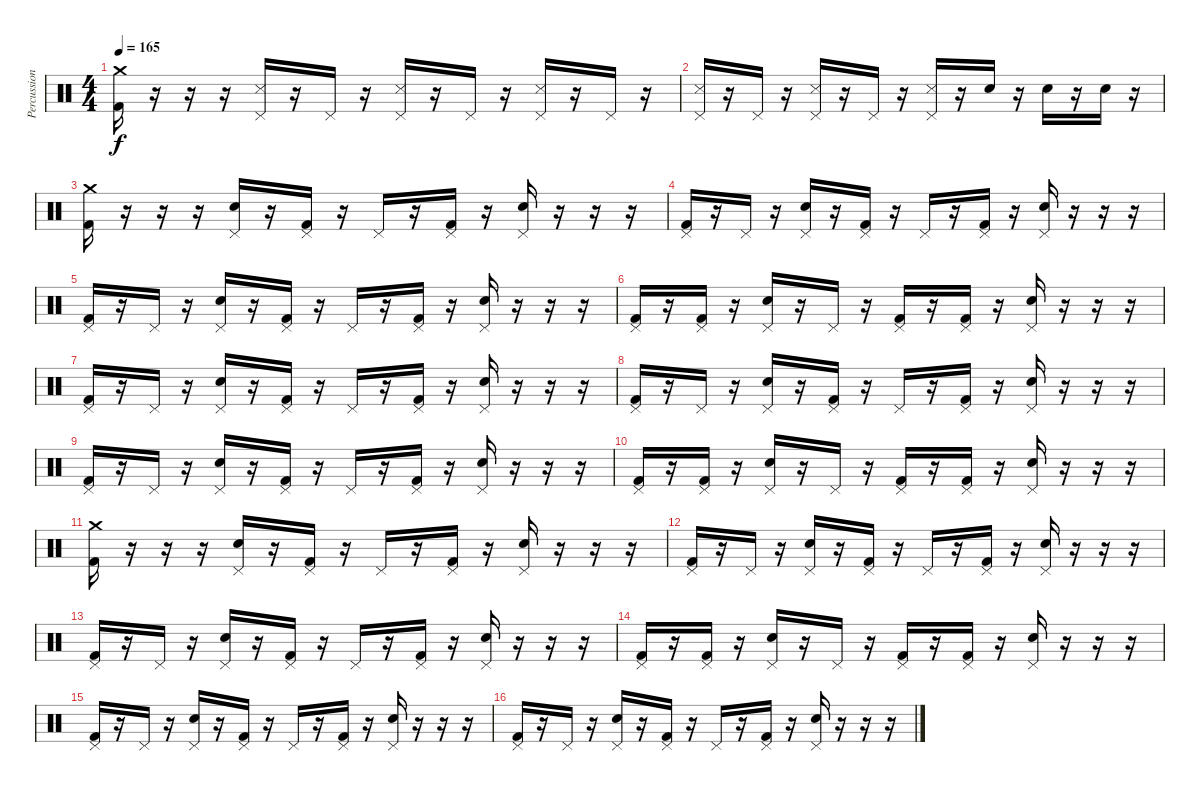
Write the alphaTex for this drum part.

\track ("Percussion" "Percussion") {instrument percussion}
\staff {score}
\articulation defaults
\ts (4 4)
\tempo 165
\clef neutral
\ks c
("Crash medium (hit)" "Kick (hit) 2").16{dy f} r.16 r.16 r.16 ("Metronome (hit)" "Pedal Hi-Hat (hit)").16 r.16 "Pedal Hi-Hat (hit)".16 r.16 ("Metronome (hit)" "Pedal Hi-Hat (hit)").16 r.16 "Pedal Hi-Hat (hit)".16 r.16 ("Metronome (hit)" "Pedal Hi-Hat (hit)").16 r.16 "Pedal Hi-Hat (hit)".16 r.16 |
("Metronome (hit)" "Pedal Hi-Hat (hit)").16 r.16 "Pedal Hi-Hat (hit)".16 r.16 ("Metronome (hit)" "Pedal Hi-Hat (hit)").16 r.16 "Pedal Hi-Hat (hit)".16 r.16 ("Metronome (hit)" "Pedal Hi-Hat (hit)").16 r.16 "Electric Snare (hit)".16 r.16 "Electric Snare (hit)".16 r.16 "Electric Snare (hit)".16 r.16 |
("Crash medium (hit)" "Kick (hit) 2").16 r.16 r.16 r.16 ("Pedal Hi-Hat (hit)" "Electric Snare (hit)").16 r.16 ("Pedal Hi-Hat (hit)" "Kick (hit) 2").16 r.16 "Pedal Hi-Hat (hit)".16 r.16 ("Pedal Hi-Hat (hit)" "Kick (hit) 2").16 r.16 ("Pedal Hi-Hat (hit)" "Electric Snare (hit)").16 r.16 r.16 r.16 |
("Pedal Hi-Hat (hit)" "Kick (hit) 2").16 r.16 "Pedal Hi-Hat (hit)".16 r.16 ("Pedal Hi-Hat (hit)" "Electric Snare (hit)").16 r.16 ("Pedal Hi-Hat (hit)" "Kick (hit) 2").16 r.16 "Pedal Hi-Hat (hit)".16 r.16 ("Pedal Hi-Hat (hit)" "Kick (hit) 2").16 r.16 ("Pedal Hi-Hat (hit)" "Electric Snare (hit)").16 r.16 r.16 r.16 |
("Pedal Hi-Hat (hit)" "Kick (hit) 2").16 r.16 "Pedal Hi-Hat (hit)".16 r.16 ("Pedal Hi-Hat (hit)" "Electric Snare (hit)").16 r.16 ("Pedal Hi-Hat (hit)" "Kick (hit) 2").16 r.16 "Pedal Hi-Hat (hit)".16 r.16 ("Pedal Hi-Hat (hit)" "Kick (hit) 2").16 r.16 ("Pedal Hi-Hat (hit)" "Electric Snare (hit)").16 r.16 r.16 r.16 |
("Pedal Hi-Hat (hit)" "Kick (hit) 2").16 r.16 ("Pedal Hi-Hat (hit)" "Kick (hit) 2").16 r.16 ("Pedal Hi-Hat (hit)" "Electric Snare (hit)").16 r.16 "Pedal Hi-Hat (hit)".16 r.16 ("Pedal Hi-Hat (hit)" "Kick (hit) 2").16 r.16 ("Pedal Hi-Hat (hit)" "Kick (hit) 2").16 r.16 ("Pedal Hi-Hat (hit)" "Electric Snare (hit)").16 r.16 r.16 r.16 |
("Pedal Hi-Hat (hit)" "Kick (hit) 2").16 r.16 "Pedal Hi-Hat (hit)".16 r.16 ("Pedal Hi-Hat (hit)" "Electric Snare (hit)").16 r.16 ("Pedal Hi-Hat (hit)" "Kick (hit) 2").16 r.16 "Pedal Hi-Hat (hit)".16 r.16 ("Pedal Hi-Hat (hit)" "Kick (hit) 2").16 r.16 ("Pedal Hi-Hat (hit)" "Electric Snare (hit)").16 r.16 r.16 r.16 |
("Pedal Hi-Hat (hit)" "Kick (hit) 2").16 r.16 "Pedal Hi-Hat (hit)".16 r.16 ("Pedal Hi-Hat (hit)" "Electric Snare (hit)").16 r.16 ("Pedal Hi-Hat (hit)" "Kick (hit) 2").16 r.16 "Pedal Hi-Hat (hit)".16 r.16 ("Pedal Hi-Hat (hit)" "Kick (hit) 2").16 r.16 ("Pedal Hi-Hat (hit)" "Electric Snare (hit)").16 r.16 r.16 r.16 |
("Pedal Hi-Hat (hit)" "Kick (hit) 2").16 r.16 "Pedal Hi-Hat (hit)".16 r.16 ("Pedal Hi-Hat (hit)" "Electric Snare (hit)").16 r.16 ("Pedal Hi-Hat (hit)" "Kick (hit) 2").16 r.16 "Pedal Hi-Hat (hit)".16 r.16 ("Pedal Hi-Hat (hit)" "Kick (hit) 2").16 r.16 ("Pedal Hi-Hat (hit)" "Electric Snare (hit)").16 r.16 r.16 r.16 |
("Pedal Hi-Hat (hit)" "Kick (hit) 2").16 r.16 ("Pedal Hi-Hat (hit)" "Kick (hit) 2").16 r.16 ("Pedal Hi-Hat (hit)" "Electric Snare (hit)").16 r.16 "Pedal Hi-Hat (hit)".16 r.16 ("Pedal Hi-Hat (hit)" "Kick (hit) 2").16 r.16 ("Pedal Hi-Hat (hit)" "Kick (hit) 2").16 r.16 ("Pedal Hi-Hat (hit)" "Electric Snare (hit)").16 r.16 r.16 r.16 |
("Crash medium (hit)" "Kick (hit) 2").16 r.16 r.16 r.16 ("Pedal Hi-Hat (hit)" "Electric Snare (hit)").16 r.16 ("Pedal Hi-Hat (hit)" "Kick (hit) 2").16 r.16 "Pedal Hi-Hat (hit)".16 r.16 ("Pedal Hi-Hat (hit)" "Kick (hit) 2").16 r.16 ("Pedal Hi-Hat (hit)" "Electric Snare (hit)").16 r.16 r.16 r.16 |
("Pedal Hi-Hat (hit)" "Kick (hit) 2").16 r.16 "Pedal Hi-Hat (hit)".16 r.16 ("Pedal Hi-Hat (hit)" "Electric Snare (hit)").16 r.16 ("Pedal Hi-Hat (hit)" "Kick (hit) 2").16 r.16 "Pedal Hi-Hat (hit)".16 r.16 ("Pedal Hi-Hat (hit)" "Kick (hit) 2").16 r.16 ("Pedal Hi-Hat (hit)" "Electric Snare (hit)").16 r.16 r.16 r.16 |
("Pedal Hi-Hat (hit)" "Kick (hit) 2").16 r.16 "Pedal Hi-Hat (hit)".16 r.16 ("Pedal Hi-Hat (hit)" "Electric Snare (hit)").16 r.16 ("Pedal Hi-Hat (hit)" "Kick (hit) 2").16 r.16 "Pedal Hi-Hat (hit)".16 r.16 ("Pedal Hi-Hat (hit)" "Kick (hit) 2").16 r.16 ("Pedal Hi-Hat (hit)" "Electric Snare (hit)").16 r.16 r.16 r.16 |
("Pedal Hi-Hat (hit)" "Kick (hit) 2").16 r.16 ("Pedal Hi-Hat (hit)" "Kick (hit) 2").16 r.16 ("Pedal Hi-Hat (hit)" "Electric Snare (hit)").16 r.16 "Pedal Hi-Hat (hit)".16 r.16 ("Pedal Hi-Hat (hit)" "Kick (hit) 2").16 r.16 ("Pedal Hi-Hat (hit)" "Kick (hit) 2").16 r.16 ("Pedal Hi-Hat (hit)" "Electric Snare (hit)").16 r.16 r.16 r.16 |
("Pedal Hi-Hat (hit)" "Kick (hit) 2").16 r.16 "Pedal Hi-Hat (hit)".16 r.16 ("Pedal Hi-Hat (hit)" "Electric Snare (hit)").16 r.16 ("Pedal Hi-Hat (hit)" "Kick (hit) 2").16 r.16 "Pedal Hi-Hat (hit)".16 r.16 ("Pedal Hi-Hat (hit)" "Kick (hit) 2").16 r.16 ("Pedal Hi-Hat (hit)" "Electric Snare (hit)").16 r.16 r.16 r.16 |
("Pedal Hi-Hat (hit)" "Kick (hit) 2").16 r.16 "Pedal Hi-Hat (hit)".16 r.16 ("Pedal Hi-Hat (hit)" "Electric Snare (hit)").16 r.16 ("Pedal Hi-Hat (hit)" "Kick (hit) 2").16 r.16 "Pedal Hi-Hat (hit)".16 r.16 ("Pedal Hi-Hat (hit)" "Kick (hit) 2").16 r.16 ("Pedal Hi-Hat (hit)" "Electric Snare (hit)").16 r.16 r.16 r.16
